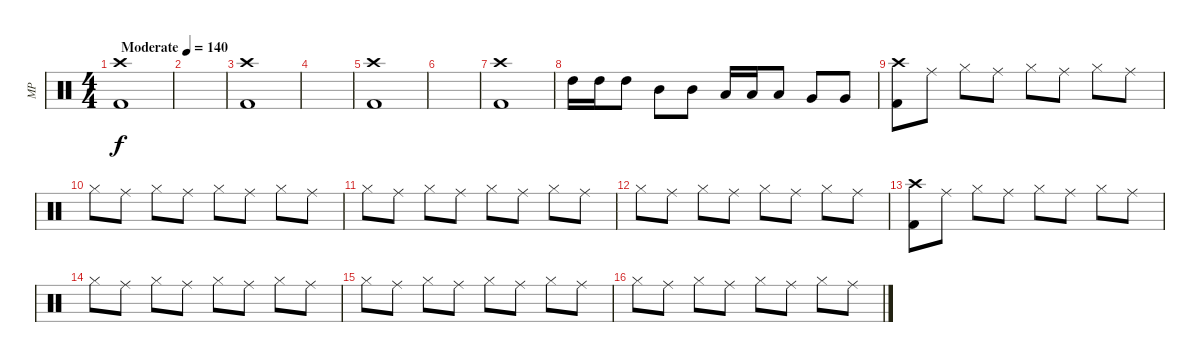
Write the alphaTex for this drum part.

\track ("MP" "MP") {instrument percussion}
\staff {score}
\articulation defaults
\ts (4 4)
\tempo (140 "Moderate")
\clef neutral
\ks c
("Kick (hit) 2" "Crash high (hit)").1{dy f} |
|
("Kick (hit) 2" "Crash high (hit)").1 |
|
("Kick (hit) 2" "Crash high (hit)").1 |
|
("Kick (hit) 2" "Crash high (hit)").1 |
"High Tom (hit)".16 "High Tom (hit)".16 "High Tom (hit)".8 "Mid Tom (hit)".8 "Mid Tom (hit)".8 "Low Tom (hit)".16 "Low Tom (hit)".16 "Low Tom (hit)".8 "Very Low Tom (hit)".8 "Very Low Tom (hit)".8 |
("Kick (hit) 2" "Crash high (hit)").8 "Ride (middle)".8 "Hi-Hat (closed)".8 "Ride (middle)".8 "Hi-Hat (closed)".8 "Ride (middle)".8 "Hi-Hat (closed)".8 "Ride (middle)".8 |
"Hi-Hat (closed)".8 "Ride (middle)".8 "Hi-Hat (closed)".8 "Ride (middle)".8 "Hi-Hat (closed)".8 "Ride (middle)".8 "Hi-Hat (closed)".8 "Ride (middle)".8 |
"Hi-Hat (closed)".8 "Ride (middle)".8 "Hi-Hat (closed)".8 "Ride (middle)".8 "Hi-Hat (closed)".8 "Ride (middle)".8 "Hi-Hat (closed)".8 "Ride (middle)".8 |
"Hi-Hat (closed)".8 "Ride (middle)".8 "Hi-Hat (closed)".8 "Ride (middle)".8 "Hi-Hat (closed)".8 "Ride (middle)".8 "Hi-Hat (closed)".8 "Ride (middle)".8 |
("Kick (hit) 2" "Crash high (hit)").8 "Ride (middle)".8 "Hi-Hat (closed)".8 "Ride (middle)".8 "Hi-Hat (closed)".8 "Ride (middle)".8 "Hi-Hat (closed)".8 "Ride (middle)".8 |
"Hi-Hat (closed)".8 "Ride (middle)".8 "Hi-Hat (closed)".8 "Ride (middle)".8 "Hi-Hat (closed)".8 "Ride (middle)".8 "Hi-Hat (closed)".8 "Ride (middle)".8 |
"Hi-Hat (closed)".8 "Ride (middle)".8 "Hi-Hat (closed)".8 "Ride (middle)".8 "Hi-Hat (closed)".8 "Ride (middle)".8 "Hi-Hat (closed)".8 "Ride (middle)".8 |
"Hi-Hat (closed)".8 "Ride (middle)".8 "Hi-Hat (closed)".8 "Ride (middle)".8 "Hi-Hat (closed)".8 "Ride (middle)".8 "Hi-Hat (closed)".8 "Ride (middle)".8
